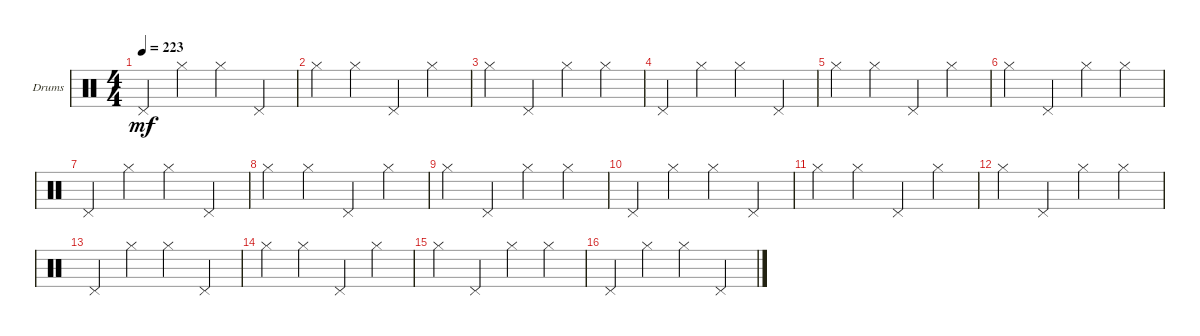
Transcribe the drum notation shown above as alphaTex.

\defaultSystemsLayout 4
\bracketExtendMode groupsimilarinstruments
\firstSystemTrackNameOrientation horizontal
\otherSystemsTrackNameOrientation horizontal
\track ("Drumkit" "Drums") {instrument percussion}
\staff {score}
\articulation defaults
\ts (4 4)
\tempo 223
\clef neutral
\ks c "Pedal Hi-Hat (hit)".4{dy mf} "Hi-Hat (closed)".4 "Hi-Hat (closed)".4 "Pedal Hi-Hat (hit)".4
|
"Hi-Hat (closed)".4 "Hi-Hat (closed)".4 "Pedal Hi-Hat (hit)".4 "Hi-Hat (closed)".4 |
"Hi-Hat (closed)".4 "Pedal Hi-Hat (hit)".4 "Hi-Hat (closed)".4 "Hi-Hat (closed)".4 |
"Pedal Hi-Hat (hit)".4 "Hi-Hat (closed)".4 "Hi-Hat (closed)".4 "Pedal Hi-Hat (hit)".4 |
"Hi-Hat (closed)".4 "Hi-Hat (closed)".4 "Pedal Hi-Hat (hit)".4 "Hi-Hat (closed)".4 |
"Hi-Hat (closed)".4 "Pedal Hi-Hat (hit)".4 "Hi-Hat (closed)".4 "Hi-Hat (closed)".4 |
"Pedal Hi-Hat (hit)".4 "Hi-Hat (closed)".4 "Hi-Hat (closed)".4 "Pedal Hi-Hat (hit)".4 |
"Hi-Hat (closed)".4 "Hi-Hat (closed)".4 "Pedal Hi-Hat (hit)".4 "Hi-Hat (closed)".4 |
"Hi-Hat (closed)".4 "Pedal Hi-Hat (hit)".4 "Hi-Hat (closed)".4 "Hi-Hat (closed)".4 |
"Pedal Hi-Hat (hit)".4 "Hi-Hat (closed)".4 "Hi-Hat (closed)".4 "Pedal Hi-Hat (hit)".4 |
"Hi-Hat (closed)".4 "Hi-Hat (closed)".4 "Pedal Hi-Hat (hit)".4 "Hi-Hat (closed)".4 |
"Hi-Hat (closed)".4 "Pedal Hi-Hat (hit)".4 "Hi-Hat (closed)".4 "Hi-Hat (closed)".4 |
"Pedal Hi-Hat (hit)".4 "Hi-Hat (closed)".4 "Hi-Hat (closed)".4 "Pedal Hi-Hat (hit)".4 |
"Hi-Hat (closed)".4 "Hi-Hat (closed)".4 "Pedal Hi-Hat (hit)".4 "Hi-Hat (closed)".4 |
"Hi-Hat (closed)".4 "Pedal Hi-Hat (hit)".4 "Hi-Hat (closed)".4 "Hi-Hat (closed)".4 |
"Pedal Hi-Hat (hit)".4 "Hi-Hat (closed)".4 "Hi-Hat (closed)".4 "Pedal Hi-Hat (hit)".4
